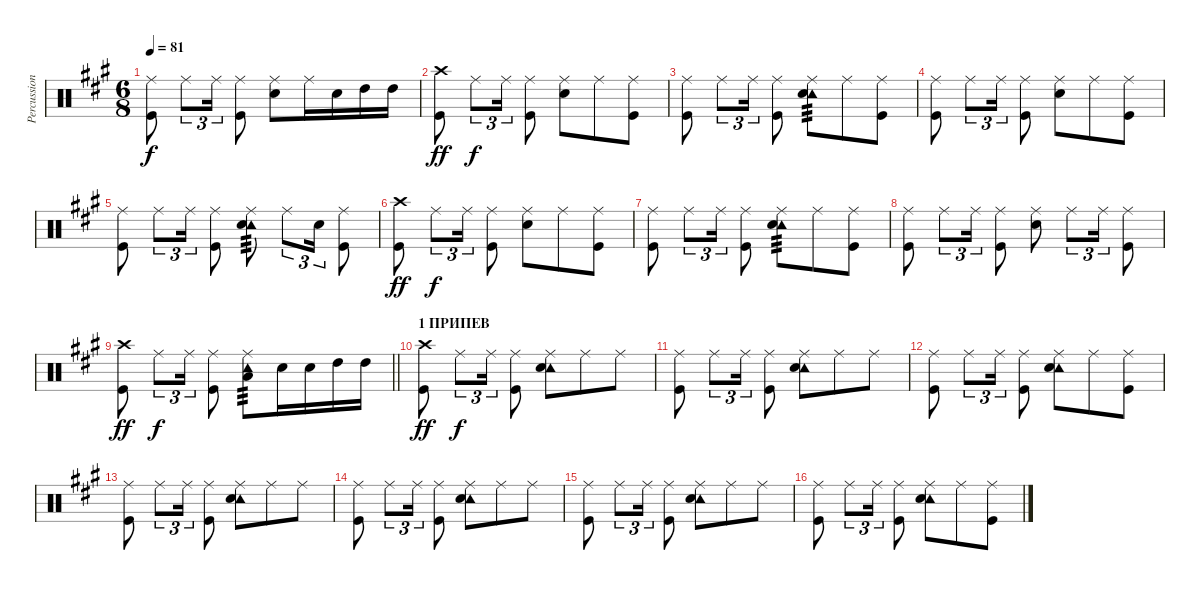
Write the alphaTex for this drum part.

\track ("Percussion" "Percussion") {instrument percussion}
\staff {score}
\articulation defaults
\ts (6 8)
\tempo 81
\clef neutral
\ks a
("Ride (middle)" "Kick (hit)").8{dy f} "Ride (middle)".8{tu (3 2)} "Ride (middle)".16{tu (3 2)} ("Ride (middle)" "Kick (hit)").8 ("Ride (middle)" "Snare (hit) 2").8 "Ride (middle)".16 "Snare (hit) 2".16 "High Tom (hit)".16 "High Tom (hit)".16 |
("Crash high (hit)" "Kick (hit)").8{dy ff} "Ride (middle)".8{tu (3 2) dy f} "Ride (middle)".16{tu (3 2)} ("Ride (middle)" "Kick (hit)").8 ("Ride (middle)" "Snare (hit) 2").8 "Ride (middle)".8 ("Ride (middle)" "Kick (hit)").8 |
("Ride (middle)" "Kick (hit)").8 "Ride (middle)".8{tu (3 2)} "Ride (middle)".16{tu (3 2)} ("Ride (middle)" "Kick (hit)").8 ("Ride (middle)" "Tambourine (hit)" "Snare (hit) 2").8{tp 3} "Ride (middle)".8 ("Ride (middle)" "Kick (hit)").8 |
("Ride (middle)" "Kick (hit)").8 "Ride (middle)".8{tu (3 2)} "Ride (middle)".16{tu (3 2)} ("Ride (middle)" "Kick (hit)").8 ("Ride (middle)" "Snare (hit) 2").8 "Ride (middle)".8 ("Ride (middle)" "Kick (hit)").8 |
("Ride (middle)" "Kick (hit)").8 "Ride (middle)".8{tu (3 2)} "Ride (middle)".16{tu (3 2)} ("Ride (middle)" "Kick (hit)").8 ("Ride (middle)" "Tambourine (hit)" "Snare (hit) 2").8{tp 3} "Ride (middle)".8{tu (3 2)} "Snare (hit) 2".16{tu (3 2)} ("Ride (middle)" "Kick (hit)").8 |
("Crash high (hit)" "Kick (hit)").8{dy ff} "Ride (middle)".8{tu (3 2) dy f} "Ride (middle)".16{tu (3 2)} ("Ride (middle)" "Kick (hit)").8 ("Ride (middle)" "Snare (hit) 2").8 "Ride (middle)".8 ("Ride (middle)" "Kick (hit)").8 |
("Ride (middle)" "Kick (hit)").8 "Ride (middle)".8{tu (3 2)} "Ride (middle)".16{tu (3 2)} ("Ride (middle)" "Kick (hit)").8 ("Ride (middle)" "Tambourine (hit)" "Snare (hit) 2").8{tp 3} "Ride (middle)".8 ("Ride (middle)" "Kick (hit)").8 |
("Ride (middle)" "Kick (hit)").8 "Ride (middle)".8{tu (3 2)} "Ride (middle)".16{tu (3 2)} ("Ride (middle)" "Kick (hit)").8 ("Ride (middle)" "Snare (hit) 2").8 "Ride (middle)".8{tu (3 2)} "Ride (middle)".16{tu (3 2)} ("Ride (middle)" "Kick (hit)").8 |
\barLineRight lightlight
("Crash high (hit)" "Kick (hit)").8{dy ff} "Ride (middle)".8{tu (3 2) dy f} "Ride (middle)".16{tu (3 2)} ("Ride (middle)" "Kick (hit)").8 ("Ride (middle)" "Tambourine (hit)" "Low Floor Tom (hit)").8{tp 3} "Snare (hit) 2".16 "Snare (hit) 2".16 "High Tom (hit)".16 "High Tom (hit)".16 |
\section ("" "1 ПРИПЕВ")
("Crash high (hit)" "Kick (hit)").8{dy ff} "Ride (middle)".8{tu (3 2) dy f} "Ride (middle)".16{tu (3 2)} ("Ride (middle)" "Kick (hit)").8 ("Ride (middle)" "Tambourine (hit)" "Snare (hit) 2").8 "Ride (middle)".8 "Ride (middle)".8 |
("Ride (middle)" "Kick (hit)").8 "Ride (middle)".8{tu (3 2)} "Ride (middle)".16{tu (3 2)} ("Ride (middle)" "Kick (hit)").8 ("Ride (middle)" "Tambourine (hit)" "Snare (hit) 2").8 "Ride (middle)".8 "Ride (middle)".8 |
("Ride (middle)" "Kick (hit)").8 "Ride (middle)".8{tu (3 2)} "Ride (middle)".16{tu (3 2)} ("Ride (middle)" "Kick (hit)").8 ("Ride (middle)" "Tambourine (hit)" "Snare (hit) 2").8 "Ride (middle)".8 ("Ride (middle)" "Kick (hit)").8 |
("Ride (middle)" "Kick (hit)").8 "Ride (middle)".8{tu (3 2)} "Ride (middle)".16{tu (3 2)} ("Ride (middle)" "Kick (hit)").8 ("Ride (middle)" "Tambourine (hit)" "Snare (hit) 2").8 "Ride (middle)".8 "Ride (middle)".8 |
("Ride (middle)" "Kick (hit)").8 "Ride (middle)".8{tu (3 2)} "Ride (middle)".16{tu (3 2)} ("Ride (middle)" "Kick (hit)").8 ("Ride (middle)" "Tambourine (hit)" "Snare (hit) 2").8 "Ride (middle)".8 "Ride (middle)".8 |
("Ride (middle)" "Kick (hit)").8 "Ride (middle)".8{tu (3 2)} "Ride (middle)".16{tu (3 2)} ("Ride (middle)" "Kick (hit)").8 ("Ride (middle)" "Tambourine (hit)" "Snare (hit) 2").8 "Ride (middle)".8 "Ride (middle)".8 |
("Ride (middle)" "Kick (hit)").8 "Ride (middle)".8{tu (3 2)} "Ride (middle)".16{tu (3 2)} ("Ride (middle)" "Kick (hit)").8 ("Ride (middle)" "Tambourine (hit)" "Snare (hit) 2").8 "Ride (middle)".8 ("Ride (middle)" "Kick (hit)").8
